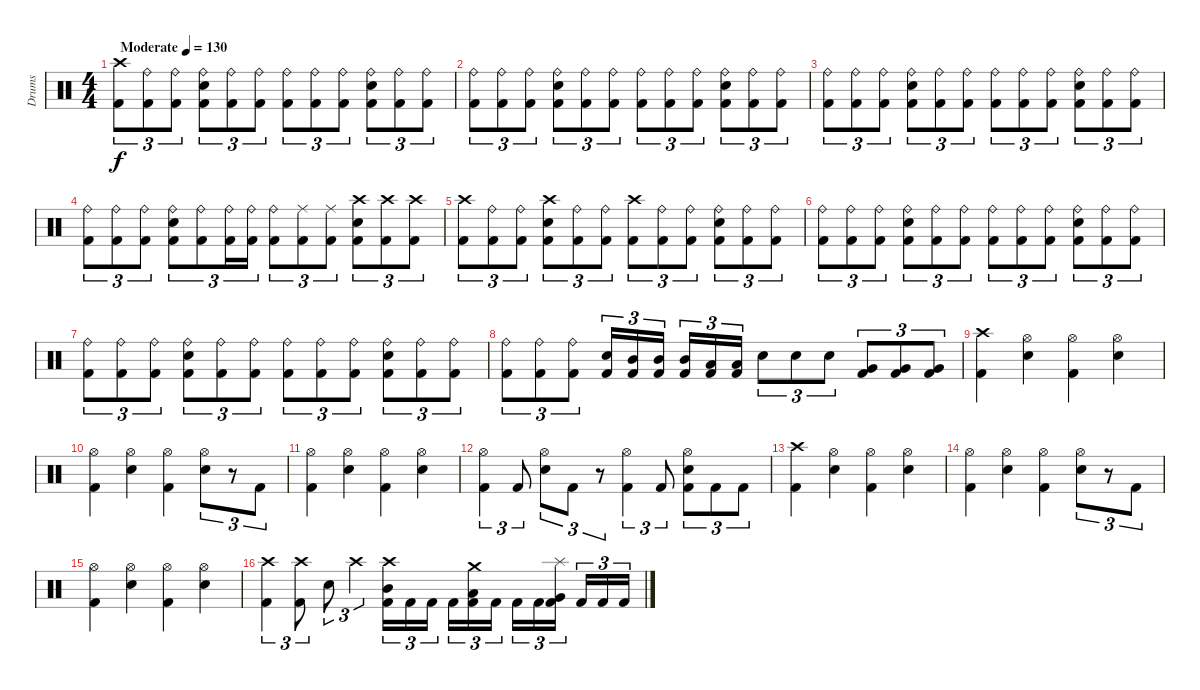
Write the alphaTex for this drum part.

\track ("Drums" "Drums") {instrument percussion}
\staff {score}
\articulation defaults
\ts (4 4)
\tempo (130 "Moderate")
\clef neutral
\ks c
("Crash high (hit)" "Kick (hit) 2").8{tu (3 2) dy f} ("Ride (bell)" "Kick (hit) 2").8{tu (3 2)} ("Ride (bell)" "Kick (hit) 2").8{tu (3 2)} ("Ride (bell)" "Electric Snare (hit)" "Kick (hit) 2").8{tu (3 2)} ("Ride (bell)" "Kick (hit) 2").8{tu (3 2)} ("Ride (bell)" "Kick (hit) 2").8{tu (3 2)} ("Ride (bell)" "Kick (hit) 2").8{tu (3 2)} ("Ride (bell)" "Kick (hit) 2").8{tu (3 2)} ("Ride (bell)" "Kick (hit) 2").8{tu (3 2)} ("Ride (bell)" "Electric Snare (hit)" "Kick (hit) 2").8{tu (3 2)} ("Ride (bell)" "Kick (hit) 2").8{tu (3 2)} ("Ride (bell)" "Kick (hit) 2").8{tu (3 2)} |
("Ride (bell)" "Kick (hit) 2").8{tu (3 2)} ("Ride (bell)" "Kick (hit) 2").8{tu (3 2)} ("Ride (bell)" "Kick (hit) 2").8{tu (3 2)} ("Ride (bell)" "Electric Snare (hit)" "Kick (hit) 2").8{tu (3 2)} ("Ride (bell)" "Kick (hit) 2").8{tu (3 2)} ("Ride (bell)" "Kick (hit) 2").8{tu (3 2)} ("Ride (bell)" "Kick (hit) 2").8{tu (3 2)} ("Ride (bell)" "Kick (hit) 2").8{tu (3 2)} ("Ride (bell)" "Kick (hit) 2").8{tu (3 2)} ("Ride (bell)" "Electric Snare (hit)" "Kick (hit) 2").8{tu (3 2)} ("Ride (bell)" "Kick (hit) 2").8{tu (3 2)} ("Ride (bell)" "Kick (hit) 2").8{tu (3 2)} |
("Ride (bell)" "Kick (hit) 2").8{tu (3 2)} ("Ride (bell)" "Kick (hit) 2").8{tu (3 2)} ("Ride (bell)" "Kick (hit) 2").8{tu (3 2)} ("Ride (bell)" "Electric Snare (hit)" "Kick (hit) 2").8{tu (3 2)} ("Ride (bell)" "Kick (hit) 2").8{tu (3 2)} ("Ride (bell)" "Kick (hit) 2").8{tu (3 2)} ("Ride (bell)" "Kick (hit) 2").8{tu (3 2)} ("Ride (bell)" "Kick (hit) 2").8{tu (3 2)} ("Ride (bell)" "Kick (hit) 2").8{tu (3 2)} ("Ride (bell)" "Electric Snare (hit)" "Kick (hit) 2").8{tu (3 2)} ("Ride (bell)" "Kick (hit) 2").8{tu (3 2)} ("Ride (bell)" "Kick (hit) 2").8{tu (3 2)} |
("Ride (bell)" "Kick (hit) 2").8{tu (3 2)} ("Ride (bell)" "Kick (hit) 2").8{tu (3 2)} ("Ride (bell)" "Kick (hit) 2").8{tu (3 2)} ("Ride (bell)" "Electric Snare (hit)" "Kick (hit) 2").8{tu (3 2)} ("Ride (bell)" "Kick (hit) 2").8{tu (3 2)} ("Ride (bell)" "Kick (hit) 2").16{tu (3 2)} ("Ride (bell)" "Kick (hit) 2").16{tu (3 2)} ("Ride (bell)" "Kick (hit) 2").8{tu (3 2)} ("Ride (middle)" "Kick (hit) 2").8{tu (3 2)} ("Ride (middle)" "Kick (hit) 2").8{tu (3 2)} ("Crash high (hit)" "Electric Snare (hit)" "Kick (hit) 2").8{tu (3 2)} ("Crash high (hit)" "Kick (hit) 2").8{tu (3 2)} ("Crash high (hit)" "Kick (hit) 2").8{tu (3 2)} |
("Crash high (hit)" "Kick (hit) 2").8{tu (3 2)} ("Ride (bell)" "Kick (hit) 2").8{tu (3 2)} ("Ride (bell)" "Kick (hit) 2").8{tu (3 2)} ("Crash high (hit)" "Electric Snare (hit)" "Kick (hit) 2").8{tu (3 2)} ("Ride (bell)" "Kick (hit) 2").8{tu (3 2)} ("Ride (bell)" "Kick (hit) 2").8{tu (3 2)} ("Crash high (hit)" "Kick (hit) 2").8{tu (3 2)} ("Ride (bell)" "Kick (hit) 2").8{tu (3 2)} ("Ride (bell)" "Kick (hit) 2").8{tu (3 2)} ("Ride (bell)" "Electric Snare (hit)" "Kick (hit) 2").8{tu (3 2)} ("Ride (bell)" "Kick (hit) 2").8{tu (3 2)} ("Ride (bell)" "Kick (hit) 2").8{tu (3 2)} |
("Ride (bell)" "Kick (hit) 2").8{tu (3 2)} ("Ride (bell)" "Kick (hit) 2").8{tu (3 2)} ("Ride (bell)" "Kick (hit) 2").8{tu (3 2)} ("Ride (bell)" "Electric Snare (hit)" "Kick (hit) 2").8{tu (3 2)} ("Ride (bell)" "Kick (hit) 2").8{tu (3 2)} ("Ride (bell)" "Kick (hit) 2").8{tu (3 2)} ("Ride (bell)" "Kick (hit) 2").8{tu (3 2)} ("Ride (bell)" "Kick (hit) 2").8{tu (3 2)} ("Ride (bell)" "Kick (hit) 2").8{tu (3 2)} ("Ride (bell)" "Electric Snare (hit)" "Kick (hit) 2").8{tu (3 2)} ("Ride (bell)" "Kick (hit) 2").8{tu (3 2)} ("Ride (bell)" "Kick (hit) 2").8{tu (3 2)} |
("Ride (bell)" "Kick (hit) 2").8{tu (3 2)} ("Ride (bell)" "Kick (hit) 2").8{tu (3 2)} ("Ride (bell)" "Kick (hit) 2").8{tu (3 2)} ("Ride (bell)" "Electric Snare (hit)" "Kick (hit) 2").8{tu (3 2)} ("Ride (bell)" "Kick (hit) 2").8{tu (3 2)} ("Ride (bell)" "Kick (hit) 2").8{tu (3 2)} ("Ride (bell)" "Kick (hit) 2").8{tu (3 2)} ("Ride (bell)" "Kick (hit) 2").8{tu (3 2)} ("Ride (bell)" "Kick (hit) 2").8{tu (3 2)} ("Ride (bell)" "Electric Snare (hit)" "Kick (hit) 2").8{tu (3 2)} ("Ride (bell)" "Kick (hit) 2").8{tu (3 2)} ("Ride (bell)" "Kick (hit) 2").8{tu (3 2)} |
("Ride (bell)" "Kick (hit) 2").8{tu (3 2)} ("Ride (bell)" "Kick (hit) 2").8{tu (3 2)} ("Ride (bell)" "Kick (hit) 2").8{tu (3 2)} ("Electric Snare (hit)" "Kick (hit) 2").16{tu (3 2)} ("Mid Tom (hit)" "Kick (hit) 2").16{tu (3 2)} ("Mid Tom (hit)" "Kick (hit) 2").16{tu (3 2) beam splitsecondary} ("Mid Tom (hit)" "Kick (hit) 2").16{tu (3 2)} ("Low Tom (hit)" "Kick (hit) 2").16{tu (3 2)} ("Low Tom (hit)" "Kick (hit) 2").16{tu (3 2)} "Electric Snare (hit)".8{tu (3 2)} "Electric Snare (hit)".8{tu (3 2)} "Electric Snare (hit)".8{tu (3 2)} ("Very Low Tom (hit)" "Kick (hit) 2").8{tu (3 2)} ("Very Low Tom (hit)" "Kick (hit) 2").8{tu (3 2)} ("Very Low Tom (hit)" "Kick (hit) 2").8{tu (3 2)} |
("Crash high (hit)" "Kick (hit) 2").4 ("Hi-Hat (open)" "Electric Snare (hit)").4 ("Hi-Hat (open)" "Kick (hit) 2").4 ("Hi-Hat (open)" "Electric Snare (hit)").4 |
("Hi-Hat (open)" "Kick (hit) 2").4 ("Hi-Hat (open)" "Electric Snare (hit)").4 ("Hi-Hat (open)" "Kick (hit) 2").4 ("Hi-Hat (open)" "Electric Snare (hit)").8{tu (3 2)} r.8{tu (3 2)} "Kick (hit) 2".8{tu (3 2)} |
("Hi-Hat (open)" "Kick (hit) 2").4 ("Hi-Hat (open)" "Electric Snare (hit)").4 ("Hi-Hat (open)" "Kick (hit) 2").4 ("Hi-Hat (open)" "Electric Snare (hit)").4 |
("Hi-Hat (open)" "Kick (hit) 2").4{tu (3 2)} "Kick (hit) 2".8{tu (3 2)} ("Hi-Hat (open)" "Electric Snare (hit)").8{tu (3 2)} "Kick (hit) 2".8{tu (3 2)} r.8{tu (3 2)} ("Hi-Hat (open)" "Kick (hit) 2").4{tu (3 2)} "Kick (hit) 2".8{tu (3 2)} ("Hi-Hat (open)" "Electric Snare (hit)" "Kick (hit) 2").8{tu (3 2)} "Kick (hit) 2".8{tu (3 2)} "Kick (hit) 2".8{tu (3 2)} |
("Crash high (hit)" "Kick (hit) 2").4 ("Hi-Hat (open)" "Electric Snare (hit)").4 ("Hi-Hat (open)" "Kick (hit) 2").4 ("Hi-Hat (open)" "Electric Snare (hit)").4 |
("Hi-Hat (open)" "Kick (hit) 2").4 ("Hi-Hat (open)" "Electric Snare (hit)").4 ("Hi-Hat (open)" "Kick (hit) 2").4 ("Hi-Hat (open)" "Electric Snare (hit)").8{tu (3 2)} r.8{tu (3 2)} "Kick (hit) 2".8{tu (3 2)} |
("Hi-Hat (open)" "Kick (hit) 2").4 ("Hi-Hat (open)" "Electric Snare (hit)").4 ("Hi-Hat (open)" "Kick (hit) 2").4 ("Hi-Hat (open)" "Electric Snare (hit)").4 |
("Crash high (hit)" "Kick (hit) 2").4{tu (3 2)} ("Crash high (hit)" "Kick (hit) 2").8{tu (3 2)} "Electric Snare (hit)".8{tu (3 2)} "Crash high (hit)".4{tu (3 2)} ("Crash high (hit)" "Mid Tom (hit)" "Kick (hit) 2").16{tu (3 2)} "Kick (hit) 2".16{tu (3 2)} "Kick (hit) 2".16{tu (3 2) beam splitsecondary} "Kick (hit) 2".16{tu (3 2)} ("Crash medium (hit)" "Low Tom (hit)" "Kick (hit) 2").16{tu (3 2)} "Kick (hit) 2".16{tu (3 2)} "Kick (hit) 2".16{tu (3 2)} "Kick (hit) 2".16{tu (3 2)} ("Splash (hit)" "Very Low Tom (hit)" "Kick (hit) 2").16{tu (3 2) beam splitsecondary} "Kick (hit) 2".16{tu (3 2)} "Kick (hit) 2".16{tu (3 2)} "Kick (hit) 2".16{tu (3 2)}
